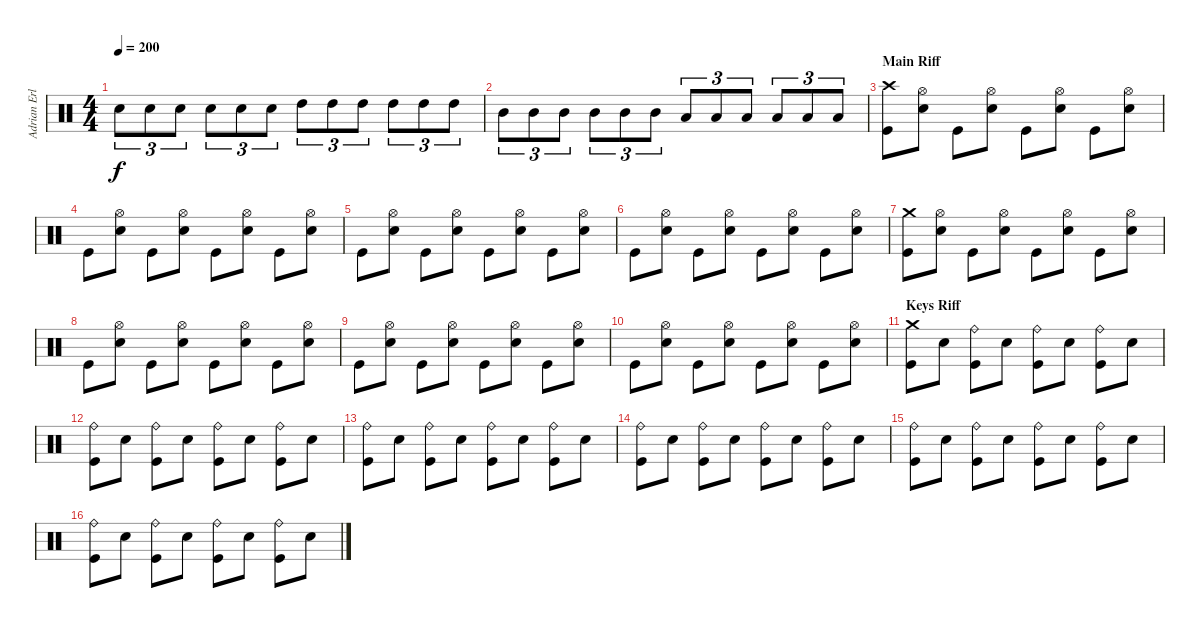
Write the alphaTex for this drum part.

\track ("Adrian Erlandsson" "Adrian Erl") {instrument percussion}
\staff {score}
\articulation defaults
\ts (4 4)
\tempo 200
\clef neutral
\ks c "Electric Snare (hit)".8{tu (3 2) dy f} "Electric Snare (hit)".8{tu (3 2)} "Electric Snare (hit)".8{tu (3 2)} "Electric Snare (hit)".8{tu (3 2)} "Electric Snare (hit)".8{tu (3 2)} "Electric Snare (hit)".8{tu (3 2)} "High Tom (hit)".8{tu (3 2)} "High Tom (hit)".8{tu (3 2)} "High Tom (hit)".8{tu (3 2)} "High Tom (hit)".8{tu (3 2)} "High Tom (hit)".8{tu (3 2)} "High Tom (hit)".8{tu (3 2)}
|
"Mid Tom (hit)".8{tu (3 2)} "Mid Tom (hit)".8{tu (3 2)} "Mid Tom (hit)".8{tu (3 2)} "Mid Tom (hit)".8{tu (3 2)} "Mid Tom (hit)".8{tu (3 2)} "Mid Tom (hit)".8{tu (3 2)} "Low Tom (hit)".8{tu (3 2)} "Low Tom (hit)".8{tu (3 2)} "Low Tom (hit)".8{tu (3 2)} "Low Tom (hit)".8{tu (3 2)} "Low Tom (hit)".8{tu (3 2)} "Low Tom (hit)".8{tu (3 2)} |
\section ("" "Main Riff")
("Crash high (hit)" "Kick (hit)").8 ("Hi-Hat (open)" "Electric Snare (hit)").8 "Kick (hit)".8 ("Hi-Hat (open)" "Electric Snare (hit)").8 "Kick (hit)".8 ("Hi-Hat (open)" "Electric Snare (hit)").8 "Kick (hit)".8 ("Hi-Hat (open)" "Electric Snare (hit)").8 |
"Kick (hit)".8 ("Hi-Hat (open)" "Electric Snare (hit)").8 "Kick (hit)".8 ("Hi-Hat (open)" "Electric Snare (hit)").8 "Kick (hit)".8 ("Hi-Hat (open)" "Electric Snare (hit)").8 "Kick (hit)".8 ("Hi-Hat (open)" "Electric Snare (hit)").8 |
"Kick (hit)".8 ("Hi-Hat (open)" "Electric Snare (hit)").8 "Kick (hit)".8 ("Hi-Hat (open)" "Electric Snare (hit)").8 "Kick (hit)".8 ("Hi-Hat (open)" "Electric Snare (hit)").8 "Kick (hit)".8 ("Hi-Hat (open)" "Electric Snare (hit)").8 |
"Kick (hit)".8 ("Hi-Hat (open)" "Electric Snare (hit)").8 "Kick (hit)".8 ("Hi-Hat (open)" "Electric Snare (hit)").8 "Kick (hit)".8 ("Hi-Hat (open)" "Electric Snare (hit)").8 "Kick (hit)".8 ("Hi-Hat (open)" "Electric Snare (hit)").8 |
("Crash medium (hit)" "Kick (hit)").8 ("Hi-Hat (open)" "Electric Snare (hit)").8 "Kick (hit)".8 ("Hi-Hat (open)" "Electric Snare (hit)").8 "Kick (hit)".8 ("Hi-Hat (open)" "Electric Snare (hit)").8 "Kick (hit)".8 ("Hi-Hat (open)" "Electric Snare (hit)").8 |
"Kick (hit)".8 ("Hi-Hat (open)" "Electric Snare (hit)").8 "Kick (hit)".8 ("Hi-Hat (open)" "Electric Snare (hit)").8 "Kick (hit)".8 ("Hi-Hat (open)" "Electric Snare (hit)").8 "Kick (hit)".8 ("Hi-Hat (open)" "Electric Snare (hit)").8 |
"Kick (hit)".8 ("Hi-Hat (open)" "Electric Snare (hit)").8 "Kick (hit)".8 ("Hi-Hat (open)" "Electric Snare (hit)").8 "Kick (hit)".8 ("Hi-Hat (open)" "Electric Snare (hit)").8 "Kick (hit)".8 ("Hi-Hat (open)" "Electric Snare (hit)").8 |
"Kick (hit)".8 ("Hi-Hat (open)" "Electric Snare (hit)").8 "Kick (hit)".8 ("Hi-Hat (open)" "Electric Snare (hit)").8 "Kick (hit)".8 ("Hi-Hat (open)" "Electric Snare (hit)").8 "Kick (hit)".8 ("Hi-Hat (open)" "Electric Snare (hit)").8 |
\section ("" "Keys Riff")
("Crash medium (hit)" "Kick (hit)").8 "Electric Snare (hit)".8 ("Ride (bell)" "Kick (hit)").8 "Electric Snare (hit)".8 ("Ride (bell)" "Kick (hit)").8 "Electric Snare (hit)".8 ("Ride (bell)" "Kick (hit)").8 "Electric Snare (hit)".8 |
("Ride (bell)" "Kick (hit)").8 "Electric Snare (hit)".8 ("Ride (bell)" "Kick (hit)").8 "Electric Snare (hit)".8 ("Ride (bell)" "Kick (hit)").8 "Electric Snare (hit)".8 ("Ride (bell)" "Kick (hit)").8 "Electric Snare (hit)".8 |
("Ride (bell)" "Kick (hit)").8 "Electric Snare (hit)".8 ("Ride (bell)" "Kick (hit)").8 "Electric Snare (hit)".8 ("Ride (bell)" "Kick (hit)").8 "Electric Snare (hit)".8 ("Ride (bell)" "Kick (hit)").8 "Electric Snare (hit)".8 |
("Ride (bell)" "Kick (hit)").8 "Electric Snare (hit)".8 ("Ride (bell)" "Kick (hit)").8 "Electric Snare (hit)".8 ("Ride (bell)" "Kick (hit)").8 "Electric Snare (hit)".8 ("Ride (bell)" "Kick (hit)").8 "Electric Snare (hit)".8 |
("Ride (bell)" "Kick (hit)").8 "Electric Snare (hit)".8 ("Ride (bell)" "Kick (hit)").8 "Electric Snare (hit)".8 ("Ride (bell)" "Kick (hit)").8 "Electric Snare (hit)".8 ("Ride (bell)" "Kick (hit)").8 "Electric Snare (hit)".8 |
("Ride (bell)" "Kick (hit)").8 "Electric Snare (hit)".8 ("Ride (bell)" "Kick (hit)").8 "Electric Snare (hit)".8 ("Ride (bell)" "Kick (hit)").8 "Electric Snare (hit)".8 ("Ride (bell)" "Kick (hit)").8 "Electric Snare (hit)".8
